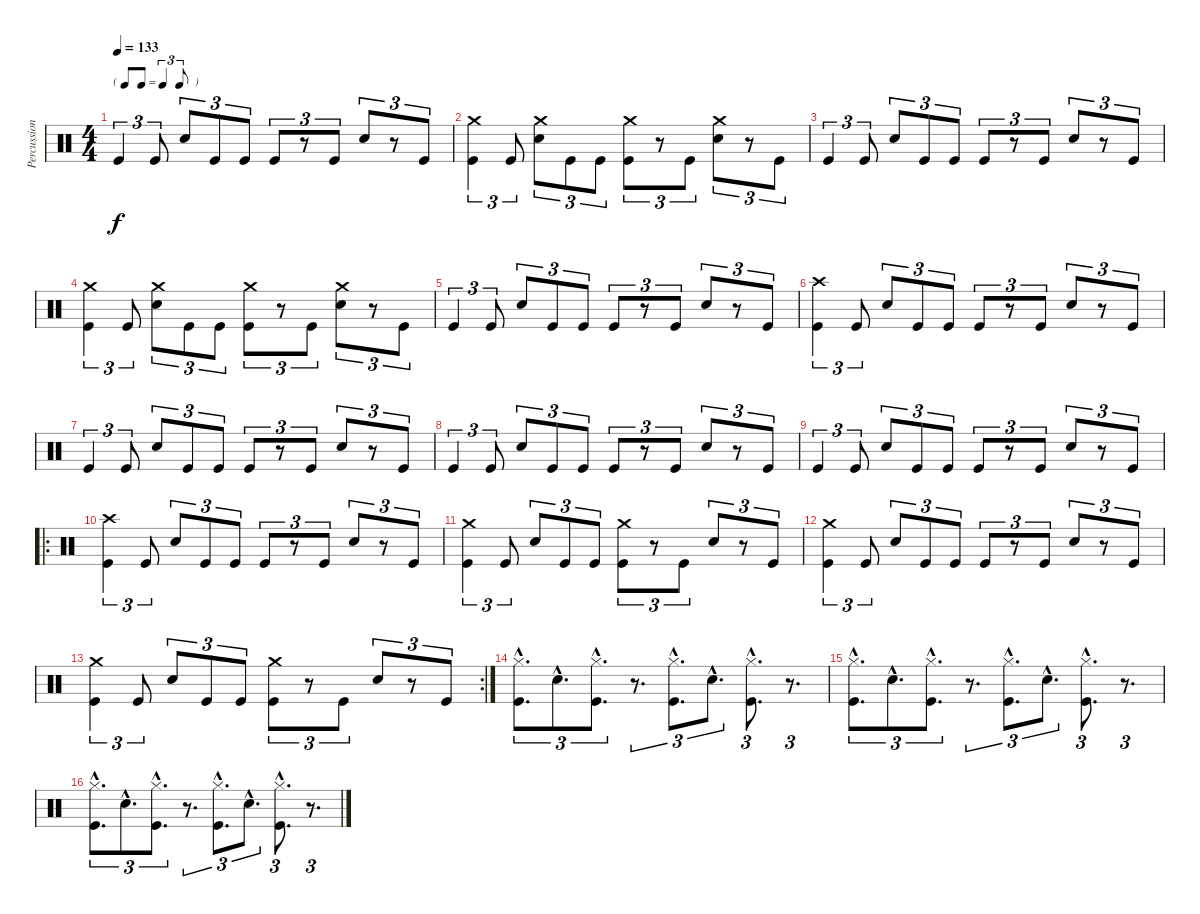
\track ("Percussion" "Percussion") {instrument percussion}
\staff {score}
\articulation defaults
\ts (4 4)
\tf triplet8th
\tempo 133
\clef neutral
\ks c "Kick (hit)".4{tu (3 2) dy f} "Kick (hit)".8{tu (3 2)} "Snare (hit) 2".8{tu (3 2)} "Kick (hit)".8{tu (3 2)} "Kick (hit)".8{tu (3 2)} "Kick (hit)".8{tu (3 2)}
r.8{tu (3 2)} "Kick (hit)".8{tu (3 2)} "Snare (hit) 2".8{tu (3 2)} r.8{tu (3 2)} "Kick (hit)".8{tu (3 2)} |
("Kick (hit)" "Crash medium (hit)").4{tu (3 2)} "Kick (hit)".8{tu (3 2)} ("Snare (hit) 2" "Crash medium (hit)").8{tu (3 2)} "Kick (hit)".8{tu (3 2)} "Kick (hit)".8{tu (3 2)} ("Kick (hit)" "Crash medium (hit)").8{tu (3 2)} r.8{tu (3 2)} "Kick (hit)".8{tu (3 2)} ("Snare (hit) 2" "Crash medium (hit)").8{tu (3 2)} r.8{tu (3 2)} "Kick (hit)".8{tu (3 2)} |
"Kick (hit)".4{tu (3 2)} "Kick (hit)".8{tu (3 2)} "Snare (hit) 2".8{tu (3 2)} "Kick (hit)".8{tu (3 2)} "Kick (hit)".8{tu (3 2)} "Kick (hit)".8{tu (3 2)} r.8{tu (3 2)} "Kick (hit)".8{tu (3 2)} "Snare (hit) 2".8{tu (3 2)} r.8{tu (3 2)} "Kick (hit)".8{tu (3 2)} |
("Kick (hit)" "Crash medium (hit)").4{tu (3 2)} "Kick (hit)".8{tu (3 2)} ("Snare (hit) 2" "Crash medium (hit)").8{tu (3 2)} "Kick (hit)".8{tu (3 2)} "Kick (hit)".8{tu (3 2)} ("Kick (hit)" "Crash medium (hit)").8{tu (3 2)} r.8{tu (3 2)} "Kick (hit)".8{tu (3 2)} ("Snare (hit) 2" "Crash medium (hit)").8{tu (3 2)} r.8{tu (3 2)} "Kick (hit)".8{tu (3 2)} |
"Kick (hit)".4{tu (3 2)} "Kick (hit)".8{tu (3 2)} "Snare (hit) 2".8{tu (3 2)} "Kick (hit)".8{tu (3 2)} "Kick (hit)".8{tu (3 2)} "Kick (hit)".8{tu (3 2)} r.8{tu (3 2)} "Kick (hit)".8{tu (3 2)} "Snare (hit) 2".8{tu (3 2)} r.8{tu (3 2)} "Kick (hit)".8{tu (3 2)} |
("Crash high (hit)" "Kick (hit)").4{tu (3 2)} "Kick (hit)".8{tu (3 2)} "Snare (hit) 2".8{tu (3 2)} "Kick (hit)".8{tu (3 2)} "Kick (hit)".8{tu (3 2)} "Kick (hit)".8{tu (3 2)} r.8{tu (3 2)} "Kick (hit)".8{tu (3 2)} "Snare (hit) 2".8{tu (3 2)} r.8{tu (3 2)} "Kick (hit)".8{tu (3 2)} |
"Kick (hit)".4{tu (3 2)} "Kick (hit)".8{tu (3 2)} "Snare (hit) 2".8{tu (3 2)} "Kick (hit)".8{tu (3 2)} "Kick (hit)".8{tu (3 2)} "Kick (hit)".8{tu (3 2)} r.8{tu (3 2)} "Kick (hit)".8{tu (3 2)} "Snare (hit) 2".8{tu (3 2)} r.8{tu (3 2)} "Kick (hit)".8{tu (3 2)} |
"Kick (hit)".4{tu (3 2)} "Kick (hit)".8{tu (3 2)} "Snare (hit) 2".8{tu (3 2)} "Kick (hit)".8{tu (3 2)} "Kick (hit)".8{tu (3 2)} "Kick (hit)".8{tu (3 2)} r.8{tu (3 2)} "Kick (hit)".8{tu (3 2)} "Snare (hit) 2".8{tu (3 2)} r.8{tu (3 2)} "Kick (hit)".8{tu (3 2)} |
"Kick (hit)".4{tu (3 2)} "Kick (hit)".8{tu (3 2)} "Snare (hit) 2".8{tu (3 2)} "Kick (hit)".8{tu (3 2)} "Kick (hit)".8{tu (3 2)} "Kick (hit)".8{tu (3 2)} r.8{tu (3 2)} "Kick (hit)".8{tu (3 2)} "Snare (hit) 2".8{tu (3 2)} r.8{tu (3 2)} "Kick (hit)".8{tu (3 2)} |
\ro
("Kick (hit)" "Crash high (hit)").4{tu (3 2)} "Kick (hit)".8{tu (3 2)} "Snare (hit) 2".8{tu (3 2)} "Kick (hit)".8{tu (3 2)} "Kick (hit)".8{tu (3 2)} "Kick (hit)".8{tu (3 2)} r.8{tu (3 2)} "Kick (hit)".8{tu (3 2)} "Snare (hit) 2".8{tu (3 2)} r.8{tu (3 2)} "Kick (hit)".8{tu (3 2)} |
("Kick (hit)" "Crash medium (hit)").4{tu (3 2)} "Kick (hit)".8{tu (3 2)} "Snare (hit) 2".8{tu (3 2)} "Kick (hit)".8{tu (3 2)} "Kick (hit)".8{tu (3 2)} ("Kick (hit)" "Crash medium (hit)").8{tu (3 2)} r.8{tu (3 2)} "Kick (hit)".8{tu (3 2)} "Snare (hit) 2".8{tu (3 2)} r.8{tu (3 2)} "Kick (hit)".8{tu (3 2)} |
("Kick (hit)" "Crash medium (hit)").4{tu (3 2)} "Kick (hit)".8{tu (3 2)} "Snare (hit) 2".8{tu (3 2)} "Kick (hit)".8{tu (3 2)} "Kick (hit)".8{tu (3 2)} "Kick (hit)".8{tu (3 2)} r.8{tu (3 2)} "Kick (hit)".8{tu (3 2)} "Snare (hit) 2".8{tu (3 2)} r.8{tu (3 2)} "Kick (hit)".8{tu (3 2)} |
\rc 2
("Kick (hit)" "Crash medium (hit)").4{tu (3 2)} "Kick (hit)".8{tu (3 2)} "Snare (hit) 2".8{tu (3 2)} "Kick (hit)".8{tu (3 2)} "Kick (hit)".8{tu (3 2)} ("Kick (hit)" "Crash medium (hit)").8{tu (3 2)} r.8{tu (3 2)} "Kick (hit)".8{tu (3 2)} "Snare (hit) 2".8{tu (3 2)} r.8{tu (3 2)} "Kick (hit)".8{tu (3 2)} |
("Kick (hit)"{hac} "Hi-Hat (closed)"{hac}).8{d tu (3 2)} "Snare (hit) 2"{hac}.8{d tu (3 2)} ("Kick (hit)"{hac} "Hi-Hat (closed)"{hac}).8{d tu (3 2)} r.8{d tu (3 2)} ("Kick (hit)"{hac} "Hi-Hat (closed)"{hac}).8{d tu (3 2)} "Snare (hit) 2"{hac}.8{d tu (3 2)} ("Kick (hit)"{hac} "Hi-Hat (closed)"{hac}).8{d tu (3 2)} r.8{d tu (3 2)} |
("Kick (hit)"{hac} "Hi-Hat (closed)"{hac}).8{d tu (3 2)} "Snare (hit) 2"{hac}.8{d tu (3 2)} ("Kick (hit)"{hac} "Hi-Hat (closed)"{hac}).8{d tu (3 2)} r.8{d tu (3 2)} ("Kick (hit)"{hac} "Hi-Hat (closed)"{hac}).8{d tu (3 2)} "Snare (hit) 2"{hac}.8{d tu (3 2)} ("Kick (hit)"{hac} "Hi-Hat (closed)"{hac}).8{d tu (3 2)} r.8{d tu (3 2)} |
("Kick (hit)"{hac} "Hi-Hat (closed)"{hac}).8{d tu (3 2)} "Snare (hit) 2"{hac}.8{d tu (3 2)} ("Kick (hit)"{hac} "Hi-Hat (closed)"{hac}).8{d tu (3 2)} r.8{d tu (3 2)} ("Kick (hit)"{hac} "Hi-Hat (closed)"{hac}).8{d tu (3 2)} "Snare (hit) 2"{hac}.8{d tu (3 2)} ("Kick (hit)"{hac} "Hi-Hat (closed)"{hac}).8{d tu (3 2)} r.8{d tu (3 2)}
